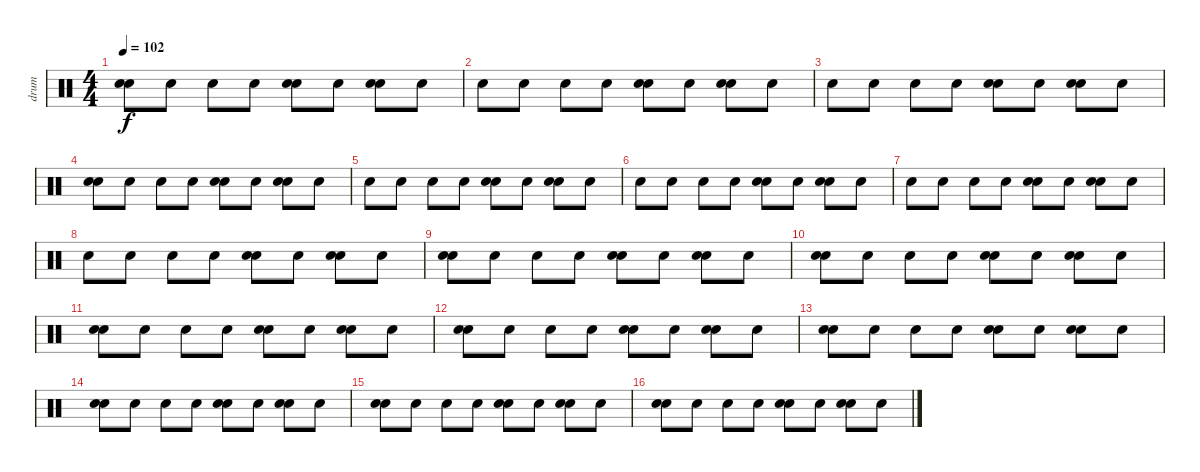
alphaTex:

\track ("drum" "drum") {instrument percussion}
\staff {score}
\articulation defaults
\ts (4 4)
\tempo 102
\clef neutral
\ks c
("Snare (hit) 2" "Electric Snare (hit)").8{dy f} "Electric Snare (hit)".8 "Electric Snare (hit)".8 "Electric Snare (hit)".8 ("Snare (hit) 2" "Electric Snare (hit)").8 "Electric Snare (hit)".8 ("Snare (hit) 2" "Electric Snare (hit)").8 "Electric Snare (hit)".8 |
"Electric Snare (hit)".8 "Electric Snare (hit)".8 "Electric Snare (hit)".8 "Electric Snare (hit)".8 ("Snare (hit) 2" "Electric Snare (hit)").8 "Electric Snare (hit)".8 ("Snare (hit) 2" "Electric Snare (hit)").8 "Electric Snare (hit)".8 |
"Electric Snare (hit)".8 "Electric Snare (hit)".8 "Electric Snare (hit)".8 "Electric Snare (hit)".8 ("Snare (hit) 2" "Electric Snare (hit)").8 "Electric Snare (hit)".8 ("Snare (hit) 2" "Electric Snare (hit)").8 "Electric Snare (hit)".8 |
("Snare (hit) 2" "Electric Snare (hit)").8 "Electric Snare (hit)".8 "Electric Snare (hit)".8 "Electric Snare (hit)".8 ("Snare (hit) 2" "Electric Snare (hit)").8 "Electric Snare (hit)".8 ("Snare (hit) 2" "Electric Snare (hit)").8 "Electric Snare (hit)".8 |
"Electric Snare (hit)".8 "Electric Snare (hit)".8 "Electric Snare (hit)".8 "Electric Snare (hit)".8 ("Snare (hit) 2" "Electric Snare (hit)").8 "Electric Snare (hit)".8 ("Snare (hit) 2" "Electric Snare (hit)").8 "Electric Snare (hit)".8 |
"Electric Snare (hit)".8 "Electric Snare (hit)".8 "Electric Snare (hit)".8 "Electric Snare (hit)".8 ("Snare (hit) 2" "Electric Snare (hit)").8 "Electric Snare (hit)".8 ("Snare (hit) 2" "Electric Snare (hit)").8 "Electric Snare (hit)".8 |
"Electric Snare (hit)".8 "Electric Snare (hit)".8 "Electric Snare (hit)".8 "Electric Snare (hit)".8 ("Snare (hit) 2" "Electric Snare (hit)").8 "Electric Snare (hit)".8 ("Snare (hit) 2" "Electric Snare (hit)").8 "Electric Snare (hit)".8 |
"Electric Snare (hit)".8 "Electric Snare (hit)".8 "Electric Snare (hit)".8 "Electric Snare (hit)".8 ("Snare (hit) 2" "Electric Snare (hit)").8 "Electric Snare (hit)".8 ("Snare (hit) 2" "Electric Snare (hit)").8 "Electric Snare (hit)".8 |
("Snare (hit) 2" "Electric Snare (hit)").8 "Electric Snare (hit)".8 "Electric Snare (hit)".8 "Electric Snare (hit)".8 ("Snare (hit) 2" "Electric Snare (hit)").8 "Electric Snare (hit)".8 ("Snare (hit) 2" "Electric Snare (hit)").8 "Electric Snare (hit)".8 |
("Snare (hit) 2" "Electric Snare (hit)").8 "Electric Snare (hit)".8 "Electric Snare (hit)".8 "Electric Snare (hit)".8 ("Snare (hit) 2" "Electric Snare (hit)").8 "Electric Snare (hit)".8 ("Snare (hit) 2" "Electric Snare (hit)").8 "Electric Snare (hit)".8 |
("Snare (hit) 2" "Electric Snare (hit)").8 "Electric Snare (hit)".8 "Electric Snare (hit)".8 "Electric Snare (hit)".8 ("Snare (hit) 2" "Electric Snare (hit)").8 "Electric Snare (hit)".8 ("Snare (hit) 2" "Electric Snare (hit)").8 "Electric Snare (hit)".8 |
("Snare (hit) 2" "Electric Snare (hit)").8 "Electric Snare (hit)".8 "Electric Snare (hit)".8 "Electric Snare (hit)".8 ("Snare (hit) 2" "Electric Snare (hit)").8 "Electric Snare (hit)".8 ("Snare (hit) 2" "Electric Snare (hit)").8 "Electric Snare (hit)".8 |
("Snare (hit) 2" "Electric Snare (hit)").8 "Electric Snare (hit)".8 "Electric Snare (hit)".8 "Electric Snare (hit)".8 ("Snare (hit) 2" "Electric Snare (hit)").8 "Electric Snare (hit)".8 ("Snare (hit) 2" "Electric Snare (hit)").8 "Electric Snare (hit)".8 |
("Snare (hit) 2" "Electric Snare (hit)").8 "Electric Snare (hit)".8 "Electric Snare (hit)".8 "Electric Snare (hit)".8 ("Snare (hit) 2" "Electric Snare (hit)").8 "Electric Snare (hit)".8 ("Snare (hit) 2" "Electric Snare (hit)").8 "Electric Snare (hit)".8 |
("Snare (hit) 2" "Electric Snare (hit)").8 "Electric Snare (hit)".8 "Electric Snare (hit)".8 "Electric Snare (hit)".8 ("Snare (hit) 2" "Electric Snare (hit)").8 "Electric Snare (hit)".8 ("Snare (hit) 2" "Electric Snare (hit)").8 "Electric Snare (hit)".8 |
("Snare (hit) 2" "Electric Snare (hit)").8 "Electric Snare (hit)".8 "Electric Snare (hit)".8 "Electric Snare (hit)".8 ("Snare (hit) 2" "Electric Snare (hit)").8 "Electric Snare (hit)".8 ("Snare (hit) 2" "Electric Snare (hit)").8 "Electric Snare (hit)".8
